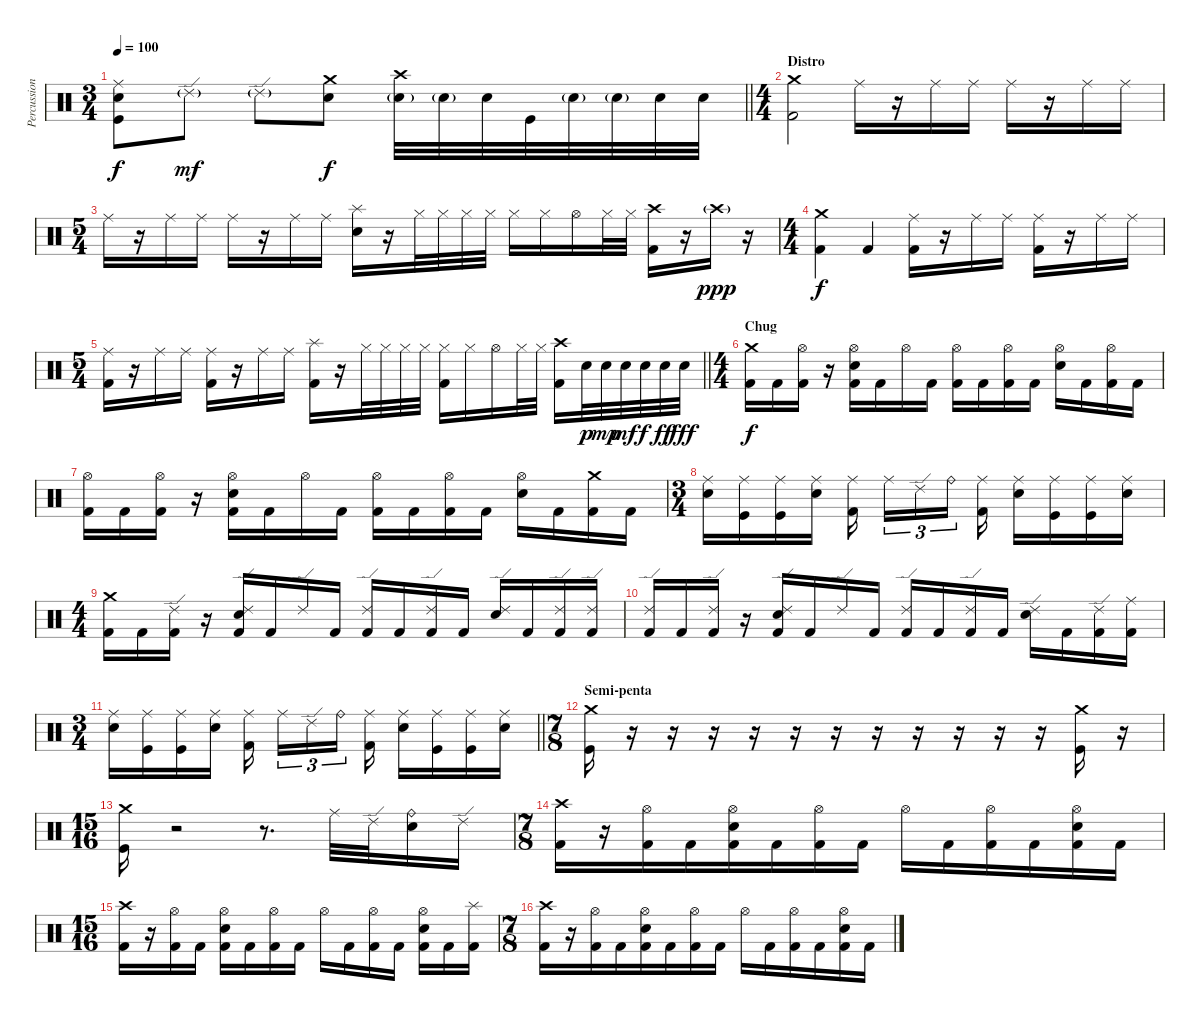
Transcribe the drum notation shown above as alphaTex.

\track ("Percussion" "Percussion") {instrument percussion}
\staff {score}
\articulation defaults
\ts (3 4)
\tempo 100
\clef neutral
\barLineRight lightlight
\ks c
("Ride (middle)" "Electric Snare (hit)" "Kick (hit)").8{dy f} "Ride (edge) 2"{g}.8{dy mf} "Ride (edge) 2"{g}.8 ("Crash medium (hit)" "Electric Snare (hit)").8{dy f} ("Crash high (hit)" "Electric Snare (hit)"{g}).32 "Electric Snare (hit)"{g}.32 "Electric Snare (hit)".32 "Kick (hit)".32 "Electric Snare (hit)"{g}.32 "Electric Snare (hit)"{g}.32 "Electric Snare (hit)".32 "Electric Snare (hit)".32 |
\ts (4 4)
\section ("" "Distro")
("Crash medium (hit)" "Kick (hit) 2").2 "Ride (middle)".16 r.16 "Ride (middle)".16 "Ride (middle)".16 "Ride (middle)".16 r.16 "Ride (middle)".16 "Ride (middle)".16 |
\ts (5 4)
"Ride (middle)".16 r.16 "Ride (middle)".16 "Ride (middle)".16 "Ride (middle)".16 r.16 "Ride (middle)".16 "Ride (middle)".16 ("Splash (hit)" "Electric Snare (hit)").16 r.16 "Hi-Hat (closed)".32 "Hi-Hat (closed)".32 "Hi-Hat (closed)".32 "Hi-Hat (closed)".32 "Hi-Hat (closed)".16 "Hi-Hat (closed)".16 "Hi-Hat (open)".16 "Hi-Hat (closed)".32 "Hi-Hat (closed)".32 ("Crash high (hit)" "Kick (hit) 2").16 r.16 "Crash high (hit)"{g}.16{dy ppp} r.16 |
\ts (4 4)
("Crash medium (hit)" "Kick (hit) 2").4{dy f} "Kick (hit) 2".4 ("Ride (middle)" "Kick (hit) 2").16 r.16 "Ride (middle)".16 "Ride (middle)".16 ("Ride (middle)" "Kick (hit) 2").16 r.16 "Ride (middle)".16 "Ride (middle)".16 |
\ts (5 4)
\barLineRight lightlight
("Ride (middle)" "Kick (hit) 2").16 r.16 "Ride (middle)".16 "Ride (middle)".16 ("Ride (middle)" "Kick (hit) 2").16 r.16 "Ride (middle)".16 "Ride (middle)".16 ("Splash (hit)" "Kick (hit) 2").16 r.16 "Hi-Hat (closed)".32 "Hi-Hat (closed)".32 "Hi-Hat (closed)".32 "Hi-Hat (closed)".32 ("Hi-Hat (closed)" "Kick (hit) 2").16 "Hi-Hat (closed)".16 "Hi-Hat (open)".16 "Hi-Hat (closed)".32 "Hi-Hat (closed)".32 ("Crash high (hit)" "Kick (hit) 2").16 "Electric Snare (hit)".32{dy p} "Electric Snare (hit)".32{dy mp} "Electric Snare (hit)".32{dy mf} "Electric Snare (hit)".32{dy f} "Electric Snare (hit)".32{dy ff} "Electric Snare (hit)".32{dy fff} |
\ts (4 4)
\section ("" "Chug")
("Crash medium (hit)" "Kick (hit) 2").16{dy f} "Kick (hit) 2".16 ("Hi-Hat (open)" "Kick (hit) 2").16 r.16 ("Hi-Hat (open)" "Electric Snare (hit)" "Kick (hit) 2").16 "Kick (hit) 2".16 "Hi-Hat (open)".16 "Kick (hit) 2".16 ("Hi-Hat (open)" "Kick (hit) 2").16 "Kick (hit) 2".16 ("Hi-Hat (open)" "Kick (hit) 2").16 "Kick (hit) 2".16 ("Hi-Hat (open)" "Electric Snare (hit)").16 "Kick (hit) 2".16 ("Hi-Hat (open)" "Kick (hit) 2").16 "Kick (hit) 2".16 |
("Hi-Hat (open)" "Kick (hit) 2").16 "Kick (hit) 2".16 ("Hi-Hat (open)" "Kick (hit) 2").16 r.16 ("Hi-Hat (open)" "Electric Snare (hit)" "Kick (hit) 2").16 "Kick (hit) 2".16 "Hi-Hat (open)".16 "Kick (hit) 2".16 ("Hi-Hat (open)" "Kick (hit) 2").16 "Kick (hit) 2".16 ("Hi-Hat (open)" "Kick (hit) 2").16 "Kick (hit) 2".16 ("Hi-Hat (open)" "Electric Snare (hit)").16 "Kick (hit) 2".16 ("Crash medium (hit)" "Kick (hit) 2").16 "Kick (hit) 2".16 |
\ts (3 4)
("Ride (middle)" "Electric Snare (hit)").16 ("Ride (middle)" "Kick (hit)").16 ("Ride (middle)" "Kick (hit)").16 ("Ride (middle)" "Electric Snare (hit)").16 ("Ride (middle)" "Kick (hit) 2").16 "Ride (middle)".16{tu (3 2)} "Ride (edge) 2".16{tu (3 2)} "Ride (bell)".16{tu (3 2)} ("Ride (middle)" "Kick (hit) 2").16 ("Ride (middle)" "Electric Snare (hit)").16 ("Ride (middle)" "Kick (hit)").16 ("Ride (middle)" "Kick (hit)").16 ("Ride (middle)" "Electric Snare (hit)").16 |
\ts (4 4)
("Crash medium (hit)" "Kick (hit) 2").16 "Kick (hit) 2".16 ("Ride (edge) 2" "Kick (hit) 2").16 r.16 ("Ride (edge) 2" "Electric Snare (hit)" "Kick (hit) 2").16 "Kick (hit) 2".16 "Ride (edge) 2".16 "Kick (hit) 2".16 ("Ride (edge) 2" "Kick (hit) 2").16 "Kick (hit) 2".16 ("Ride (edge) 2" "Kick (hit) 2").16 "Kick (hit) 2".16 ("Ride (edge) 2" "Electric Snare (hit)").16 "Kick (hit) 2".16 ("Ride (edge) 2" "Kick (hit) 2").16 ("Ride (edge) 2" "Kick (hit) 2").16 |
("Ride (edge) 2" "Kick (hit) 2").16 "Kick (hit) 2".16 ("Ride (edge) 2" "Kick (hit) 2").16 r.16 ("Ride (edge) 2" "Electric Snare (hit)" "Kick (hit) 2").16 "Kick (hit) 2".16 "Ride (edge) 2".16 "Kick (hit) 2".16 ("Ride (edge) 2" "Kick (hit) 2").16 "Kick (hit) 2".16 ("Ride (edge) 2" "Kick (hit) 2").16 "Kick (hit) 2".16 ("Ride (edge) 2" "Electric Snare (hit)").16 "Kick (hit) 2".16 ("Ride (edge) 2" "Kick (hit) 2").16 ("Ride (middle)" "Kick (hit) 2").16 |
\ts (3 4)
\barLineRight lightlight
("Ride (middle)" "Electric Snare (hit)").16 ("Ride (middle)" "Kick (hit)").16 ("Ride (middle)" "Kick (hit)").16 ("Ride (middle)" "Electric Snare (hit)").16 ("Ride (middle)" "Kick (hit) 2").16 "Ride (middle)".16{tu (3 2)} "Ride (edge) 2".16{tu (3 2)} "Ride (bell)".16{tu (3 2)} ("Ride (middle)" "Kick (hit) 2").16 ("Ride (middle)" "Electric Snare (hit)").16 ("Ride (middle)" "Kick (hit)").16 ("Ride (middle)" "Kick (hit)").16 ("Ride (middle)" "Electric Snare (hit)").16 |
\ts (7 8)
\section ("" "Semi-penta")
("Crash medium (hit)" "Kick (hit)").16 r.16 r.16 r.16 r.16 r.16 r.16 r.16 r.16 r.16 r.16 r.16 ("Crash medium (hit)" "Kick (hit)").16 r.16 |
\ts (15 16)
("Crash medium (hit)" "Kick (hit)").16 r.2 r.8{d} "Ride (middle)".32 "Ride (edge) 2".32 ("Ride (bell)" "Metronome (bell)").16 "Ride (edge) 2".16 |
\ts (7 8)
("Crash high (hit)" "Kick (hit) 2").16 r.16 ("Hi-Hat (open)" "Kick (hit) 2").16 "Kick (hit) 2".16 ("Hi-Hat (open)" "Electric Snare (hit)" "Kick (hit) 2").16 "Kick (hit) 2".16 ("Hi-Hat (open)" "Kick (hit) 2").16 "Kick (hit) 2".16 "Hi-Hat (open)".16 "Kick (hit) 2".16 ("Hi-Hat (open)" "Kick (hit) 2").16 "Kick (hit) 2".16 ("Hi-Hat (open)" "Electric Snare (hit)" "Kick (hit) 2").16 "Kick (hit) 2".16 |
\ts (15 16)
("Crash high (hit)" "Kick (hit) 2").16 r.16 ("Hi-Hat (open)" "Kick (hit) 2").16 "Kick (hit) 2".16 ("Hi-Hat (open)" "Electric Snare (hit)" "Kick (hit) 2").16 "Kick (hit) 2".16 ("Hi-Hat (open)" "Kick (hit) 2").16 "Kick (hit) 2".16 "Hi-Hat (open)".16 "Kick (hit) 2".16 ("Hi-Hat (open)" "Kick (hit) 2").16 "Kick (hit) 2".16 ("Hi-Hat (open)" "Electric Snare (hit)" "Kick (hit) 2").16 "Kick (hit) 2".16 ("Splash (hit)" "Kick (hit) 2").16 |
\ts (7 8)
("Crash high (hit)" "Kick (hit) 2").16 r.16 ("Hi-Hat (open)" "Kick (hit) 2").16 "Kick (hit) 2".16 ("Hi-Hat (open)" "Electric Snare (hit)" "Kick (hit) 2").16 "Kick (hit) 2".16 ("Hi-Hat (open)" "Kick (hit) 2").16 "Kick (hit) 2".16 "Hi-Hat (open)".16 "Kick (hit) 2".16 ("Hi-Hat (open)" "Kick (hit) 2").16 "Kick (hit) 2".16 ("Hi-Hat (open)" "Electric Snare (hit)" "Kick (hit) 2").16 "Kick (hit) 2".16
